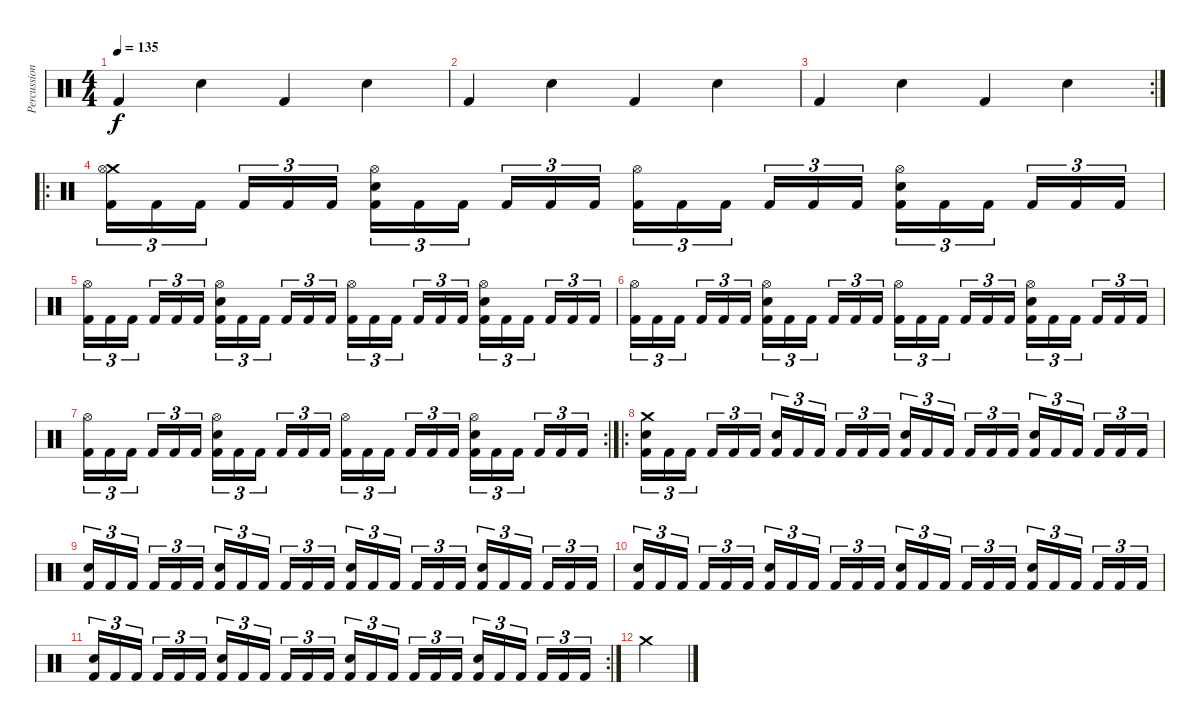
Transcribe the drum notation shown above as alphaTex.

\track ("Percussion" "Percussion") {instrument percussion}
\staff {score}
\articulation defaults
\ts (4 4)
\tempo 135
\clef neutral
\ks c "Kick (hit) 2".4{dy f} "Snare (hit) 2".4 "Kick (hit) 2".4 "Snare (hit) 2".4
|
"Kick (hit) 2".4 "Snare (hit) 2".4 "Kick (hit) 2".4 "Snare (hit) 2".4 |
\rc 2 "Kick (hit) 2".4 "Snare (hit) 2".4 "Kick (hit) 2".4 "Snare (hit) 2".4
|
\ro
("Crash medium (hit)" "Hi-Hat (open)" "Kick (hit) 2").16{tu (3 2)} "Kick (hit) 2".16{tu (3 2)} "Kick (hit) 2".16{tu (3 2) beam splitsecondary} "Kick (hit) 2".16{tu (3 2)} "Kick (hit) 2".16{tu (3 2)} "Kick (hit) 2".16{tu (3 2)} ("Hi-Hat (open)" "Snare (hit) 2" "Kick (hit) 2").16{tu (3 2)} "Kick (hit) 2".16{tu (3 2)} "Kick (hit) 2".16{tu (3 2) beam splitsecondary} "Kick (hit) 2".16{tu (3 2)} "Kick (hit) 2".16{tu (3 2)} "Kick (hit) 2".16{tu (3 2)} ("Hi-Hat (open)" "Kick (hit) 2").16{tu (3 2)} "Kick (hit) 2".16{tu (3 2)} "Kick (hit) 2".16{tu (3 2) beam splitsecondary} "Kick (hit) 2".16{tu (3 2)} "Kick (hit) 2".16{tu (3 2)} "Kick (hit) 2".16{tu (3 2)} ("Hi-Hat (open)" "Snare (hit) 2" "Kick (hit) 2").16{tu (3 2)} "Kick (hit) 2".16{tu (3 2)} "Kick (hit) 2".16{tu (3 2) beam splitsecondary} "Kick (hit) 2".16{tu (3 2)} "Kick (hit) 2".16{tu (3 2)} "Kick (hit) 2".16{tu (3 2)} |
("Hi-Hat (open)" "Kick (hit) 2").16{tu (3 2)} "Kick (hit) 2".16{tu (3 2)} "Kick (hit) 2".16{tu (3 2) beam splitsecondary} "Kick (hit) 2".16{tu (3 2)} "Kick (hit) 2".16{tu (3 2)} "Kick (hit) 2".16{tu (3 2)} ("Hi-Hat (open)" "Snare (hit) 2" "Kick (hit) 2").16{tu (3 2)} "Kick (hit) 2".16{tu (3 2)} "Kick (hit) 2".16{tu (3 2) beam splitsecondary} "Kick (hit) 2".16{tu (3 2)} "Kick (hit) 2".16{tu (3 2)} "Kick (hit) 2".16{tu (3 2)} ("Hi-Hat (open)" "Kick (hit) 2").16{tu (3 2)} "Kick (hit) 2".16{tu (3 2)} "Kick (hit) 2".16{tu (3 2) beam splitsecondary} "Kick (hit) 2".16{tu (3 2)} "Kick (hit) 2".16{tu (3 2)} "Kick (hit) 2".16{tu (3 2)} ("Hi-Hat (open)" "Snare (hit) 2" "Kick (hit) 2").16{tu (3 2)} "Kick (hit) 2".16{tu (3 2)} "Kick (hit) 2".16{tu (3 2) beam splitsecondary} "Kick (hit) 2".16{tu (3 2)} "Kick (hit) 2".16{tu (3 2)} "Kick (hit) 2".16{tu (3 2)} |
("Hi-Hat (open)" "Kick (hit) 2").16{tu (3 2)} "Kick (hit) 2".16{tu (3 2)} "Kick (hit) 2".16{tu (3 2) beam splitsecondary} "Kick (hit) 2".16{tu (3 2)} "Kick (hit) 2".16{tu (3 2)} "Kick (hit) 2".16{tu (3 2)} ("Hi-Hat (open)" "Snare (hit) 2" "Kick (hit) 2").16{tu (3 2)} "Kick (hit) 2".16{tu (3 2)} "Kick (hit) 2".16{tu (3 2) beam splitsecondary} "Kick (hit) 2".16{tu (3 2)} "Kick (hit) 2".16{tu (3 2)} "Kick (hit) 2".16{tu (3 2)} ("Hi-Hat (open)" "Kick (hit) 2").16{tu (3 2)} "Kick (hit) 2".16{tu (3 2)} "Kick (hit) 2".16{tu (3 2) beam splitsecondary} "Kick (hit) 2".16{tu (3 2)} "Kick (hit) 2".16{tu (3 2)} "Kick (hit) 2".16{tu (3 2)} ("Hi-Hat (open)" "Snare (hit) 2" "Kick (hit) 2").16{tu (3 2)} "Kick (hit) 2".16{tu (3 2)} "Kick (hit) 2".16{tu (3 2) beam splitsecondary} "Kick (hit) 2".16{tu (3 2)} "Kick (hit) 2".16{tu (3 2)} "Kick (hit) 2".16{tu (3 2)} |
\rc 2
("Hi-Hat (open)" "Kick (hit) 2").16{tu (3 2)} "Kick (hit) 2".16{tu (3 2)} "Kick (hit) 2".16{tu (3 2) beam splitsecondary} "Kick (hit) 2".16{tu (3 2)} "Kick (hit) 2".16{tu (3 2)} "Kick (hit) 2".16{tu (3 2)} ("Hi-Hat (open)" "Snare (hit) 2" "Kick (hit) 2").16{tu (3 2)} "Kick (hit) 2".16{tu (3 2)} "Kick (hit) 2".16{tu (3 2) beam splitsecondary} "Kick (hit) 2".16{tu (3 2)} "Kick (hit) 2".16{tu (3 2)} "Kick (hit) 2".16{tu (3 2)} ("Hi-Hat (open)" "Kick (hit) 2").16{tu (3 2)} "Kick (hit) 2".16{tu (3 2)} "Kick (hit) 2".16{tu (3 2) beam splitsecondary} "Kick (hit) 2".16{tu (3 2)} "Kick (hit) 2".16{tu (3 2)} "Kick (hit) 2".16{tu (3 2)} ("Hi-Hat (open)" "Snare (hit) 2" "Kick (hit) 2").16{tu (3 2)} "Kick (hit) 2".16{tu (3 2)} "Kick (hit) 2".16{tu (3 2) beam splitsecondary} "Kick (hit) 2".16{tu (3 2)} "Kick (hit) 2".16{tu (3 2)} "Kick (hit) 2".16{tu (3 2)} |
\ro
("Crash medium (hit)" "Snare (hit) 2" "Kick (hit) 2").16{tu (3 2)} "Kick (hit) 2".16{tu (3 2)} "Kick (hit) 2".16{tu (3 2) beam splitsecondary} "Kick (hit) 2".16{tu (3 2)} "Kick (hit) 2".16{tu (3 2)} "Kick (hit) 2".16{tu (3 2)} ("Snare (hit) 2" "Kick (hit) 2").16{tu (3 2)} "Kick (hit) 2".16{tu (3 2)} "Kick (hit) 2".16{tu (3 2) beam splitsecondary} "Kick (hit) 2".16{tu (3 2)} "Kick (hit) 2".16{tu (3 2)} "Kick (hit) 2".16{tu (3 2)} ("Snare (hit) 2" "Kick (hit) 2").16{tu (3 2)} "Kick (hit) 2".16{tu (3 2)} "Kick (hit) 2".16{tu (3 2) beam splitsecondary} "Kick (hit) 2".16{tu (3 2)} "Kick (hit) 2".16{tu (3 2)} "Kick (hit) 2".16{tu (3 2)} ("Snare (hit) 2" "Kick (hit) 2").16{tu (3 2)} "Kick (hit) 2".16{tu (3 2)} "Kick (hit) 2".16{tu (3 2) beam splitsecondary} "Kick (hit) 2".16{tu (3 2)} "Kick (hit) 2".16{tu (3 2)} "Kick (hit) 2".16{tu (3 2)} |
("Snare (hit) 2" "Kick (hit) 2").16{tu (3 2)} "Kick (hit) 2".16{tu (3 2)} "Kick (hit) 2".16{tu (3 2) beam splitsecondary} "Kick (hit) 2".16{tu (3 2)} "Kick (hit) 2".16{tu (3 2)} "Kick (hit) 2".16{tu (3 2)} ("Snare (hit) 2" "Kick (hit) 2").16{tu (3 2)} "Kick (hit) 2".16{tu (3 2)} "Kick (hit) 2".16{tu (3 2) beam splitsecondary} "Kick (hit) 2".16{tu (3 2)} "Kick (hit) 2".16{tu (3 2)} "Kick (hit) 2".16{tu (3 2)} ("Snare (hit) 2" "Kick (hit) 2").16{tu (3 2)} "Kick (hit) 2".16{tu (3 2)} "Kick (hit) 2".16{tu (3 2) beam splitsecondary} "Kick (hit) 2".16{tu (3 2)} "Kick (hit) 2".16{tu (3 2)} "Kick (hit) 2".16{tu (3 2)} ("Snare (hit) 2" "Kick (hit) 2").16{tu (3 2)} "Kick (hit) 2".16{tu (3 2)} "Kick (hit) 2".16{tu (3 2) beam splitsecondary} "Kick (hit) 2".16{tu (3 2)} "Kick (hit) 2".16{tu (3 2)} "Kick (hit) 2".16{tu (3 2)} |
("Snare (hit) 2" "Kick (hit) 2").16{tu (3 2)} "Kick (hit) 2".16{tu (3 2)} "Kick (hit) 2".16{tu (3 2) beam splitsecondary} "Kick (hit) 2".16{tu (3 2)} "Kick (hit) 2".16{tu (3 2)} "Kick (hit) 2".16{tu (3 2)} ("Snare (hit) 2" "Kick (hit) 2").16{tu (3 2)} "Kick (hit) 2".16{tu (3 2)} "Kick (hit) 2".16{tu (3 2) beam splitsecondary} "Kick (hit) 2".16{tu (3 2)} "Kick (hit) 2".16{tu (3 2)} "Kick (hit) 2".16{tu (3 2)} ("Snare (hit) 2" "Kick (hit) 2").16{tu (3 2)} "Kick (hit) 2".16{tu (3 2)} "Kick (hit) 2".16{tu (3 2) beam splitsecondary} "Kick (hit) 2".16{tu (3 2)} "Kick (hit) 2".16{tu (3 2)} "Kick (hit) 2".16{tu (3 2)} ("Snare (hit) 2" "Kick (hit) 2").16{tu (3 2)} "Kick (hit) 2".16{tu (3 2)} "Kick (hit) 2".16{tu (3 2) beam splitsecondary} "Kick (hit) 2".16{tu (3 2)} "Kick (hit) 2".16{tu (3 2)} "Kick (hit) 2".16{tu (3 2)} |
\rc 2
("Snare (hit) 2" "Kick (hit) 2").16{tu (3 2)} "Kick (hit) 2".16{tu (3 2)} "Kick (hit) 2".16{tu (3 2) beam splitsecondary} "Kick (hit) 2".16{tu (3 2)} "Kick (hit) 2".16{tu (3 2)} "Kick (hit) 2".16{tu (3 2)} ("Snare (hit) 2" "Kick (hit) 2").16{tu (3 2)} "Kick (hit) 2".16{tu (3 2)} "Kick (hit) 2".16{tu (3 2) beam splitsecondary} "Kick (hit) 2".16{tu (3 2)} "Kick (hit) 2".16{tu (3 2)} "Kick (hit) 2".16{tu (3 2)} ("Snare (hit) 2" "Kick (hit) 2").16{tu (3 2)} "Kick (hit) 2".16{tu (3 2)} "Kick (hit) 2".16{tu (3 2) beam splitsecondary} "Kick (hit) 2".16{tu (3 2)} "Kick (hit) 2".16{tu (3 2)} "Kick (hit) 2".16{tu (3 2)} ("Snare (hit) 2" "Kick (hit) 2").16{tu (3 2)} "Kick (hit) 2".16{tu (3 2)} "Kick (hit) 2".16{tu (3 2) beam splitsecondary} "Kick (hit) 2".16{tu (3 2)} "Kick (hit) 2".16{tu (3 2)} "Kick (hit) 2".16{tu (3 2)} |
"Crash medium (hit)".2
